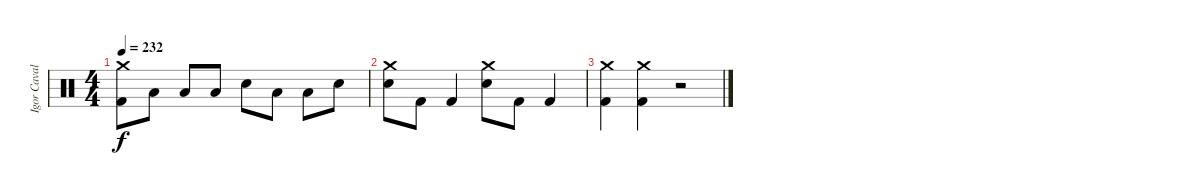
\track ("Igor Cavalera" "Igor Caval") {instrument percussion}
\staff {score}
\articulation defaults
\ts (4 4)
\tempo 232
\clef neutral
\ks c
("Crash medium (hit)" "Kick (hit) 2").8{dy f} "Low Tom (hit)".8 "Low Tom (hit)".8 "Low Tom (hit)".8 "Electric Snare (hit)".8 "Low Tom (hit)".8 "Low Tom (hit)".8 "Electric Snare (hit)".8 |
("Electric Snare (hit)" "Crash medium (hit)").8 "Kick (hit) 2".8 "Kick (hit) 2".4 ("Electric Snare (hit)" "Crash medium (hit)").8 "Kick (hit) 2".8 "Kick (hit) 2".4 |
("Kick (hit) 2" "Crash medium (hit)").4 ("Kick (hit) 2" "Crash medium (hit)").4 r.2
